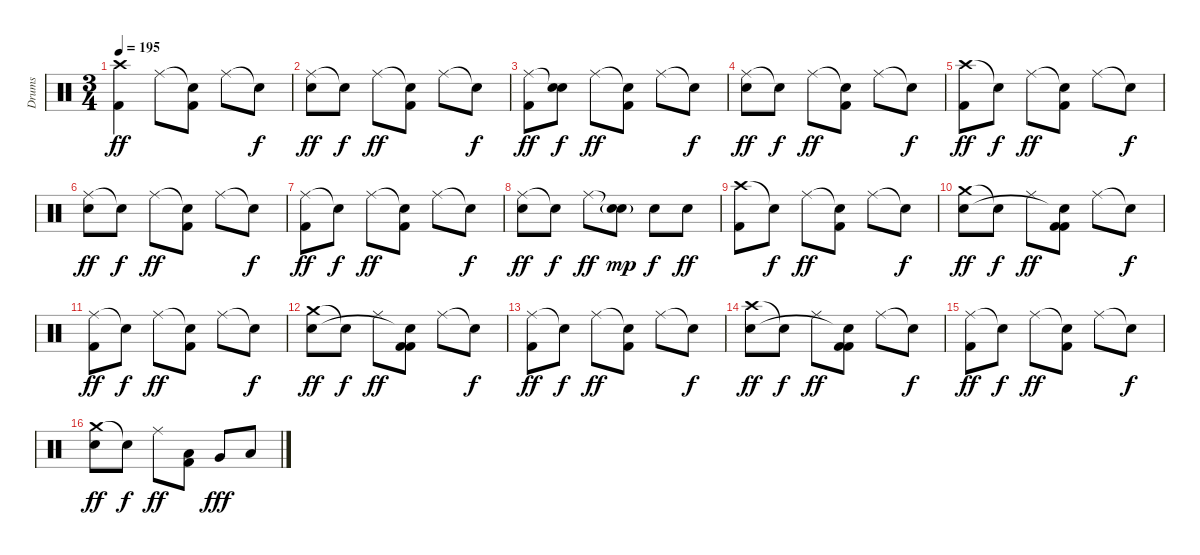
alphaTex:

\track ("Drums" "Drums") {instrument percussion}
\staff {score}
\articulation defaults
\ts (3 4)
\tempo 195
\clef neutral
\ks c
("Crash high (hit)" "Kick (hit) 2").4{dy ff} "Ride (middle)".8 ("Snare (hit)"{t} "Kick (hit) 2").8 "Ride (middle)".8 "Snare (hit)"{t}.8{dy f} |
("Ride (middle)" "Electric Snare (hit)").8{dy ff} "Snare (hit)"{t}.8{dy f} "Ride (middle)".8{dy ff} ("Snare (hit)"{t} "Kick (hit) 2").8 "Ride (middle)".8 "Snare (hit)"{t}.8{dy f} |
("Ride (middle)" "Kick (hit) 2").8{dy ff} ("Snare (hit)"{t} "Electric Snare (hit)").8{dy f} "Ride (middle)".8{dy ff} ("Snare (hit)"{t} "Kick (hit) 2").8 "Ride (middle)".8 "Snare (hit)"{t}.8{dy f} |
("Ride (middle)" "Electric Snare (hit)").8{dy ff} "Snare (hit)"{t}.8{dy f} "Ride (middle)".8{dy ff} ("Snare (hit)"{t} "Kick (hit) 2").8 "Ride (middle)".8 "Snare (hit)"{t}.8{dy f} |
("Crash high (hit)" "Kick (hit) 2").8{dy ff} "Snare (hit)"{t}.8{dy f} "Ride (middle)".8{dy ff} ("Snare (hit)"{t} "Kick (hit) 2").8 "Ride (middle)".8 "Snare (hit)"{t}.8{dy f} |
("Ride (middle)" "Electric Snare (hit)").8{dy ff} "Snare (hit)"{t}.8{dy f} "Ride (middle)".8{dy ff} ("Snare (hit)"{t} "Kick (hit) 2").8 "Ride (middle)".8 "Snare (hit)"{t}.8{dy f} |
("Ride (middle)" "Kick (hit) 2").8{dy ff} "Snare (hit)"{t}.8{dy f} "Ride (middle)".8{dy ff} ("Snare (hit)"{t} "Kick (hit) 2").8 "Ride (middle)".8 "Snare (hit)"{t}.8{dy f} |
("Ride (middle)" "Electric Snare (hit)").8{dy ff} "Snare (hit)"{t}.8{dy f} "Ride (middle)".8{dy ff} ("Snare (hit)"{t} "Electric Snare (hit)"{g}).8{dy mp} "Electric Snare (hit)".8{dy f} "Electric Snare (hit)".8{dy ff} |
("Crash high (hit)" "Kick (hit) 2").8 "Snare (hit)"{t}.8{dy f} "Ride (middle)".8{dy ff} ("Snare (hit)"{t} "Kick (hit) 2").8 "Ride (middle)".8 "Snare (hit)"{t}.8{dy f} |
("Crash medium (hit)" "Electric Snare (hit)").8{dy ff} "Snare (hit)"{t}.8{dy f} "Ride (middle)".8{dy ff} ("Kick (hit) 2" "Snare (hit)"{t} "Kick (hit) 2").8 "Ride (middle)".8 "Snare (hit)"{t}.8{dy f} |
("Ride (middle)" "Kick (hit) 2").8{dy ff} "Snare (hit)"{t}.8{dy f} "Ride (middle)".8{dy ff} ("Snare (hit)"{t} "Kick (hit) 2").8 "Ride (middle)".8 "Snare (hit)"{t}.8{dy f} |
("Crash medium (hit)" "Electric Snare (hit)").8{dy ff} "Snare (hit)"{t}.8{dy f} "Ride (middle)".8{dy ff} ("Kick (hit) 2" "Snare (hit)"{t} "Kick (hit) 2").8 "Ride (middle)".8 "Snare (hit)"{t}.8{dy f} |
("Ride (middle)" "Kick (hit) 2").8{dy ff} "Snare (hit)"{t}.8{dy f} "Ride (middle)".8{dy ff} ("Snare (hit)"{t} "Kick (hit) 2").8 "Ride (middle)".8 "Snare (hit)"{t}.8{dy f} |
("Crash high (hit)" "Electric Snare (hit)").8{dy ff} "Snare (hit)"{t}.8{dy f} "Ride (middle)".8{dy ff} ("Kick (hit) 2" "Snare (hit)"{t} "Kick (hit) 2").8 "Ride (middle)".8 "Snare (hit)"{t}.8{dy f} |
("Ride (middle)" "Kick (hit) 2").8{dy ff} "Snare (hit)"{t}.8{dy f} "Ride (middle)".8{dy ff} ("Snare (hit)"{t} "Kick (hit) 2").8 "Ride (middle)".8 "Snare (hit)"{t}.8{dy f} |
("Crash medium (hit)" "Electric Snare (hit)").8{dy ff} "Snare (hit)"{t}.8{dy f} "Ride (middle)".8{dy ff} ("Low Tom (hit)" "Kick (hit) 2").8 "Very Low Tom (hit)".8{dy fff} "Low Floor Tom (hit)".8
